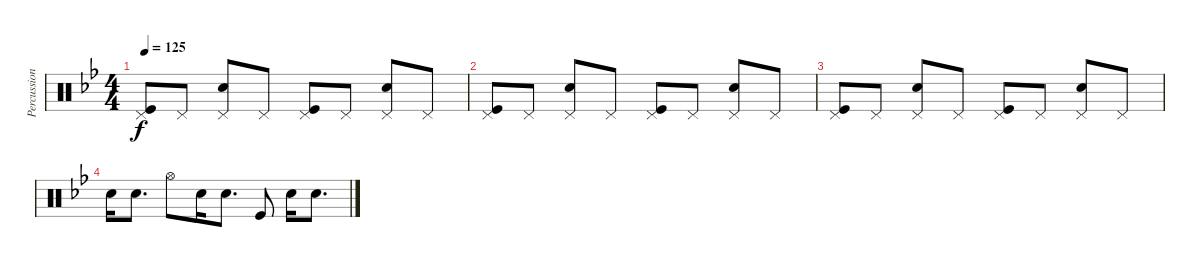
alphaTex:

\track ("Percussion" "Percussion") {instrument percussion}
\staff {score}
\articulation defaults
\ts (4 4)
\tempo 125
\clef neutral
\ks bb
("Kick (hit)" "Pedal Hi-Hat (hit)").8{dy f} "Pedal Hi-Hat (hit)".8 ("Snare (hit) 2" "Pedal Hi-Hat (hit)").8 "Pedal Hi-Hat (hit)".8 ("Kick (hit)" "Pedal Hi-Hat (hit)").8 "Pedal Hi-Hat (hit)".8 ("Snare (hit) 2" "Pedal Hi-Hat (hit)").8 "Pedal Hi-Hat (hit)".8 |
("Kick (hit)" "Pedal Hi-Hat (hit)").8 "Pedal Hi-Hat (hit)".8 ("Snare (hit) 2" "Pedal Hi-Hat (hit)").8 "Pedal Hi-Hat (hit)".8 ("Kick (hit)" "Pedal Hi-Hat (hit)").8 "Pedal Hi-Hat (hit)".8 ("Snare (hit) 2" "Pedal Hi-Hat (hit)").8 "Pedal Hi-Hat (hit)".8 |
("Kick (hit)" "Pedal Hi-Hat (hit)").8 "Pedal Hi-Hat (hit)".8 ("Snare (hit) 2" "Pedal Hi-Hat (hit)").8 "Pedal Hi-Hat (hit)".8 ("Kick (hit)" "Pedal Hi-Hat (hit)").8 "Pedal Hi-Hat (hit)".8 ("Snare (hit) 2" "Pedal Hi-Hat (hit)").8 "Pedal Hi-Hat (hit)".8 |
"Snare (hit) 2".16 "Snare (hit) 2".8{d} "Hi-Hat (open)".8 "Snare (hit) 2".16 "Snare (hit) 2".8{d} "Kick (hit)".8 "Snare (hit) 2".16 "Snare (hit) 2".8{d}
